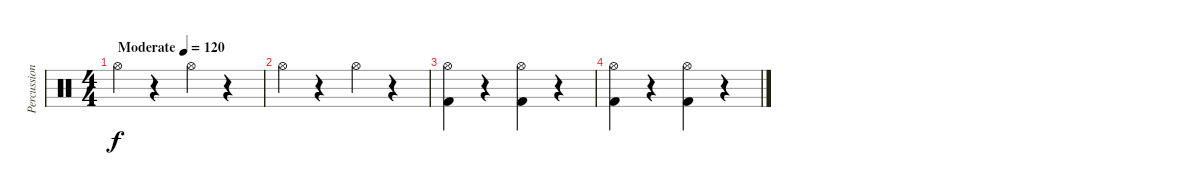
\track ("Percussion" "Percussion") {instrument percussion}
\staff {score}
\articulation defaults
\ts (4 4)
\tempo (120 "Moderate")
\clef neutral
\ks c "Hi-Hat (open)".4{dy f}
r.4 "Hi-Hat (open)".4 r.4 |
"Hi-Hat (open)".4 r.4 "Hi-Hat (open)".4 r.4 |
("Hi-Hat (open)" "Kick (hit) 2").4 r.4 ("Hi-Hat (open)" "Kick (hit) 2").4 r.4 |
("Hi-Hat (open)" "Kick (hit) 2").4 r.4 ("Hi-Hat (open)" "Kick (hit) 2").4 r.4
